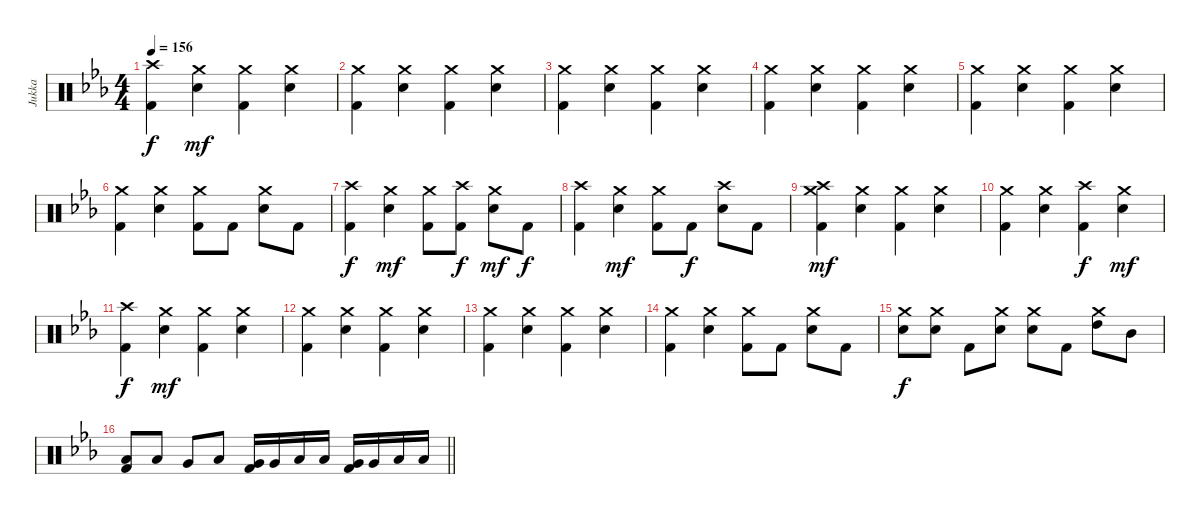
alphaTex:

\track ("Jukka" "Jukka") {instrument percussion}
\staff {score}
\articulation defaults
\ts (4 4)
\tempo 156
\clef neutral
\ks cminor
("Crash high (hit)" "Kick (hit) 2").4{dy f} ("Crash medium (hit)" "Electric Snare (hit)").4{dy mf} ("Crash medium (hit)" "Kick (hit) 2").4 ("Crash medium (hit)" "Electric Snare (hit)").4 |
("Crash medium (hit)" "Kick (hit) 2").4 ("Crash medium (hit)" "Electric Snare (hit)").4 ("Crash medium (hit)" "Kick (hit) 2").4 ("Crash medium (hit)" "Electric Snare (hit)").4 |
("Crash medium (hit)" "Kick (hit) 2").4 ("Crash medium (hit)" "Electric Snare (hit)").4 ("Crash medium (hit)" "Kick (hit) 2").4 ("Crash medium (hit)" "Electric Snare (hit)").4 |
("Crash medium (hit)" "Kick (hit) 2").4 ("Crash medium (hit)" "Electric Snare (hit)").4 ("Crash medium (hit)" "Kick (hit) 2").4 ("Crash medium (hit)" "Electric Snare (hit)").4 |
("Crash medium (hit)" "Kick (hit) 2").4 ("Crash medium (hit)" "Electric Snare (hit)").4 ("Crash medium (hit)" "Kick (hit) 2").4 ("Crash medium (hit)" "Electric Snare (hit)").4 |
("Crash medium (hit)" "Kick (hit) 2").4 ("Crash medium (hit)" "Electric Snare (hit)").4 ("Crash medium (hit)" "Kick (hit) 2").8 "Kick (hit) 2".8 ("Crash medium (hit)" "Electric Snare (hit)").8 "Kick (hit) 2".8 |
("Crash high (hit)" "Kick (hit) 2").4{dy f} ("Crash medium (hit)" "Electric Snare (hit)").4{dy mf} ("Crash medium (hit)" "Kick (hit) 2").8 ("Crash high (hit)" "Kick (hit) 2").8{dy f} ("Crash medium (hit)" "Electric Snare (hit)").8{dy mf} "Kick (hit) 2".8{dy f} |
("Crash high (hit)" "Kick (hit) 2").4 ("Crash medium (hit)" "Electric Snare (hit)").4{dy mf} ("Crash medium (hit)" "Kick (hit) 2").8 "Kick (hit) 2".8{dy f} ("Crash high (hit)" "Electric Snare (hit)").8 "Kick (hit) 2".8 |
("Crash high (hit)" "Crash medium (hit)" "Kick (hit) 2").4{dy mf} ("Crash medium (hit)" "Electric Snare (hit)").4 ("Crash medium (hit)" "Kick (hit) 2").4 ("Crash medium (hit)" "Electric Snare (hit)").4 |
("Crash medium (hit)" "Kick (hit) 2").4 ("Crash medium (hit)" "Electric Snare (hit)").4 ("Crash high (hit)" "Kick (hit) 2").4{dy f} ("Crash medium (hit)" "Electric Snare (hit)").4{dy mf} |
("Crash high (hit)" "Kick (hit) 2").4{dy f} ("Crash medium (hit)" "Electric Snare (hit)").4{dy mf} ("Crash medium (hit)" "Kick (hit) 2").4 ("Crash medium (hit)" "Electric Snare (hit)").4 |
("Crash medium (hit)" "Kick (hit) 2").4 ("Crash medium (hit)" "Electric Snare (hit)").4 ("Crash medium (hit)" "Kick (hit) 2").4 ("Crash medium (hit)" "Electric Snare (hit)").4 |
("Crash medium (hit)" "Kick (hit) 2").4 ("Crash medium (hit)" "Electric Snare (hit)").4 ("Crash medium (hit)" "Kick (hit) 2").4 ("Crash medium (hit)" "Electric Snare (hit)").4 |
("Crash medium (hit)" "Kick (hit) 2").4 ("Crash medium (hit)" "Electric Snare (hit)").4 ("Crash medium (hit)" "Kick (hit) 2").8 "Kick (hit) 2".8 ("Crash medium (hit)" "Electric Snare (hit)").8 "Kick (hit) 2".8 |
("Crash medium (hit)" "Electric Snare (hit)").8{dy f} ("Crash medium (hit)" "Electric Snare (hit)").8 "Kick (hit) 2".8 ("Crash medium (hit)" "Electric Snare (hit)").8 ("Crash medium (hit)" "Electric Snare (hit)").8 "Kick (hit) 2".8 ("Crash medium (hit)" "High Tom (hit)").8 "Mid Tom (hit)".8 |
\barLineRight lightlight
("Low Tom (hit)" "Kick (hit) 2").8 "Low Tom (hit)".8 "Very Low Tom (hit)".8 "Low Floor Tom (hit)".8 ("Very Low Tom (hit)" "Kick (hit) 2").16 "Very Low Tom (hit)".16 "Low Floor Tom (hit)".16 "Low Floor Tom (hit)".16 ("Very Low Tom (hit)" "Kick (hit) 2").16 "Very Low Tom (hit)".16 "Low Floor Tom (hit)".16 "Low Floor Tom (hit)".16
